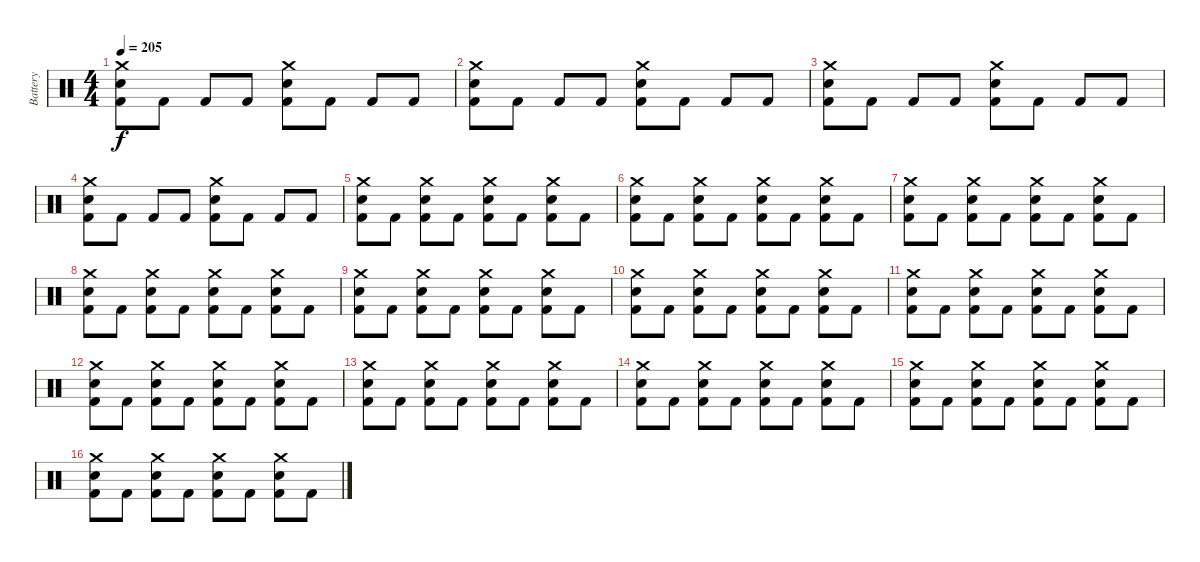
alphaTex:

\track ("Battery" "Battery") {instrument percussion}
\staff {score}
\articulation defaults
\ts (4 4)
\tempo 205
\clef neutral
\ks c
("Crash medium (hit)" "Electric Snare (hit)" "Kick (hit) 2").8{dy f} "Kick (hit) 2".8 "Kick (hit) 2".8 "Kick (hit) 2".8 ("Crash medium (hit)" "Electric Snare (hit)" "Kick (hit) 2").8 "Kick (hit) 2".8 "Kick (hit) 2".8 "Kick (hit) 2".8 |
("Crash medium (hit)" "Electric Snare (hit)" "Kick (hit) 2").8 "Kick (hit) 2".8 "Kick (hit) 2".8 "Kick (hit) 2".8 ("Crash medium (hit)" "Electric Snare (hit)" "Kick (hit) 2").8 "Kick (hit) 2".8 "Kick (hit) 2".8 "Kick (hit) 2".8 |
("Crash medium (hit)" "Electric Snare (hit)" "Kick (hit) 2").8 "Kick (hit) 2".8 "Kick (hit) 2".8 "Kick (hit) 2".8 ("Crash medium (hit)" "Electric Snare (hit)" "Kick (hit) 2").8 "Kick (hit) 2".8 "Kick (hit) 2".8 "Kick (hit) 2".8 |
("Crash medium (hit)" "Electric Snare (hit)" "Kick (hit) 2").8 "Kick (hit) 2".8 "Kick (hit) 2".8 "Kick (hit) 2".8 ("Crash medium (hit)" "Electric Snare (hit)" "Kick (hit) 2").8 "Kick (hit) 2".8 "Kick (hit) 2".8 "Kick (hit) 2".8 |
("Crash medium (hit)" "Electric Snare (hit)" "Kick (hit) 2").8 "Kick (hit) 2".8 ("Crash medium (hit)" "Electric Snare (hit)" "Kick (hit) 2").8 "Kick (hit) 2".8 ("Crash medium (hit)" "Electric Snare (hit)" "Kick (hit) 2").8 "Kick (hit) 2".8 ("Crash medium (hit)" "Electric Snare (hit)" "Kick (hit) 2").8 "Kick (hit) 2".8 |
("Crash medium (hit)" "Electric Snare (hit)" "Kick (hit) 2").8 "Kick (hit) 2".8 ("Crash medium (hit)" "Electric Snare (hit)" "Kick (hit) 2").8 "Kick (hit) 2".8 ("Crash medium (hit)" "Electric Snare (hit)" "Kick (hit) 2").8 "Kick (hit) 2".8 ("Crash medium (hit)" "Electric Snare (hit)" "Kick (hit) 2").8 "Kick (hit) 2".8 |
("Crash medium (hit)" "Electric Snare (hit)" "Kick (hit) 2").8 "Kick (hit) 2".8 ("Crash medium (hit)" "Electric Snare (hit)" "Kick (hit) 2").8 "Kick (hit) 2".8 ("Crash medium (hit)" "Electric Snare (hit)" "Kick (hit) 2").8 "Kick (hit) 2".8 ("Crash medium (hit)" "Electric Snare (hit)" "Kick (hit) 2").8 "Kick (hit) 2".8 |
("Crash medium (hit)" "Electric Snare (hit)" "Kick (hit) 2").8 "Kick (hit) 2".8 ("Crash medium (hit)" "Electric Snare (hit)" "Kick (hit) 2").8 "Kick (hit) 2".8 ("Crash medium (hit)" "Electric Snare (hit)" "Kick (hit) 2").8 "Kick (hit) 2".8 ("Crash medium (hit)" "Electric Snare (hit)" "Kick (hit) 2").8 "Kick (hit) 2".8 |
("Crash medium (hit)" "Electric Snare (hit)" "Kick (hit) 2").8 "Kick (hit) 2".8 ("Crash medium (hit)" "Electric Snare (hit)" "Kick (hit) 2").8 "Kick (hit) 2".8 ("Crash medium (hit)" "Electric Snare (hit)" "Kick (hit) 2").8 "Kick (hit) 2".8 ("Crash medium (hit)" "Electric Snare (hit)" "Kick (hit) 2").8 "Kick (hit) 2".8 |
("Crash medium (hit)" "Electric Snare (hit)" "Kick (hit) 2").8 "Kick (hit) 2".8 ("Crash medium (hit)" "Electric Snare (hit)" "Kick (hit) 2").8 "Kick (hit) 2".8 ("Crash medium (hit)" "Electric Snare (hit)" "Kick (hit) 2").8 "Kick (hit) 2".8 ("Crash medium (hit)" "Electric Snare (hit)" "Kick (hit) 2").8 "Kick (hit) 2".8 |
("Crash medium (hit)" "Electric Snare (hit)" "Kick (hit) 2").8 "Kick (hit) 2".8 ("Crash medium (hit)" "Electric Snare (hit)" "Kick (hit) 2").8 "Kick (hit) 2".8 ("Crash medium (hit)" "Electric Snare (hit)" "Kick (hit) 2").8 "Kick (hit) 2".8 ("Crash medium (hit)" "Electric Snare (hit)" "Kick (hit) 2").8 "Kick (hit) 2".8 |
("Crash medium (hit)" "Electric Snare (hit)" "Kick (hit) 2").8 "Kick (hit) 2".8 ("Crash medium (hit)" "Electric Snare (hit)" "Kick (hit) 2").8 "Kick (hit) 2".8 ("Crash medium (hit)" "Electric Snare (hit)" "Kick (hit) 2").8 "Kick (hit) 2".8 ("Crash medium (hit)" "Electric Snare (hit)" "Kick (hit) 2").8 "Kick (hit) 2".8 |
("Crash medium (hit)" "Electric Snare (hit)" "Kick (hit) 2").8 "Kick (hit) 2".8 ("Crash medium (hit)" "Electric Snare (hit)" "Kick (hit) 2").8 "Kick (hit) 2".8 ("Crash medium (hit)" "Electric Snare (hit)" "Kick (hit) 2").8 "Kick (hit) 2".8 ("Crash medium (hit)" "Electric Snare (hit)" "Kick (hit) 2").8 "Kick (hit) 2".8 |
("Crash medium (hit)" "Electric Snare (hit)" "Kick (hit) 2").8 "Kick (hit) 2".8 ("Crash medium (hit)" "Electric Snare (hit)" "Kick (hit) 2").8 "Kick (hit) 2".8 ("Crash medium (hit)" "Electric Snare (hit)" "Kick (hit) 2").8 "Kick (hit) 2".8 ("Crash medium (hit)" "Electric Snare (hit)" "Kick (hit) 2").8 "Kick (hit) 2".8 |
("Crash medium (hit)" "Electric Snare (hit)" "Kick (hit) 2").8 "Kick (hit) 2".8 ("Crash medium (hit)" "Electric Snare (hit)" "Kick (hit) 2").8 "Kick (hit) 2".8 ("Crash medium (hit)" "Electric Snare (hit)" "Kick (hit) 2").8 "Kick (hit) 2".8 ("Crash medium (hit)" "Electric Snare (hit)" "Kick (hit) 2").8 "Kick (hit) 2".8 |
("Crash medium (hit)" "Electric Snare (hit)" "Kick (hit) 2").8 "Kick (hit) 2".8 ("Crash medium (hit)" "Electric Snare (hit)" "Kick (hit) 2").8 "Kick (hit) 2".8 ("Crash medium (hit)" "Electric Snare (hit)" "Kick (hit) 2").8 "Kick (hit) 2".8 ("Crash medium (hit)" "Electric Snare (hit)" "Kick (hit) 2").8 "Kick (hit) 2".8
